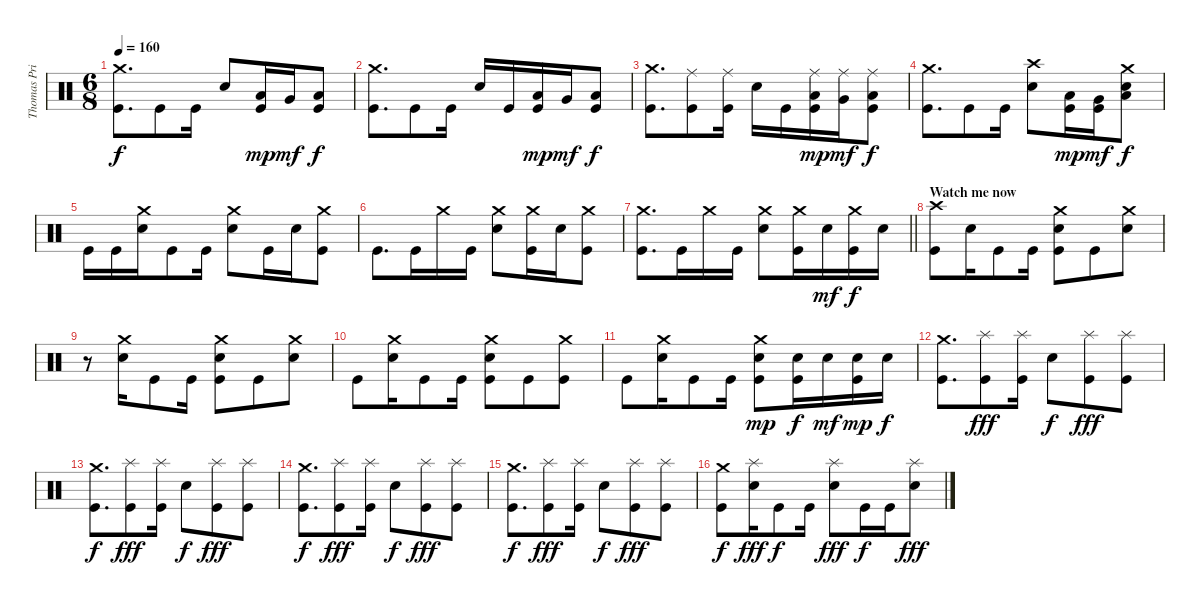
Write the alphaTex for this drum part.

\track ("Thomas Pridgen" "Thomas Pri") {instrument percussion}
\staff {score}
\articulation defaults
\ts (6 8)
\tempo 160
\clef neutral
\ks c
("Crash medium (hit)" "Kick (hit)").8{d dy f} "Kick (hit)".8 "Kick (hit)".16 "Snare (hit) 2".8 ("Low Tom (hit)" "Kick (hit)").16{dy mp} "Very Low Tom (hit)".16{dy mf} ("Low Floor Tom (hit)" "Kick (hit)").8{dy f} |
("Crash medium (hit)" "Kick (hit)").8{d} "Kick (hit)".8 "Kick (hit)".16 "Snare (hit) 2".16 "Kick (hit)".16 ("Low Tom (hit)" "Kick (hit)").16{dy mp} "Very Low Tom (hit)".16{dy mf} ("Low Floor Tom (hit)" "Kick (hit)").8{dy f} |
("Crash medium (hit)" "Kick (hit)").8{d} ("Ride (middle)" "Kick (hit)").8 ("Ride (middle)" "Kick (hit)").16 "Snare (hit) 2".16 "Kick (hit)".16 ("Ride (middle)" "Low Tom (hit)" "Kick (hit)").16{dy mp} ("Ride (middle)" "Very Low Tom (hit)").16{dy mf} ("Ride (middle)" "Low Floor Tom (hit)" "Kick (hit)").8{dy f} |
("Crash medium (hit)" "Kick (hit)").8{d} "Kick (hit)".8 "Kick (hit)".16 ("Crash high (hit)" "Snare (hit) 2").8 ("Low Tom (hit)" "Kick (hit)").16{dy mp} ("Very Low Tom (hit)" "Kick (hit)").16{dy mf} ("Crash medium (hit)" "Snare (hit) 2" "Low Floor Tom (hit)").8{dy f} |
"Kick (hit)".16 "Kick (hit)".16 ("Crash medium (hit)" "Snare (hit) 2").16 "Kick (hit)".8 "Kick (hit)".16 ("Crash medium (hit)" "Snare (hit) 2").8 "Kick (hit)".16 "Snare (hit) 2".16 ("Crash medium (hit)" "Kick (hit)").8 |
"Kick (hit)".8{d} "Kick (hit)".16 "Crash medium (hit)".16 "Kick (hit)".16 ("Crash medium (hit)" "Snare (hit) 2").8 ("Crash medium (hit)" "Kick (hit)").16 "Snare (hit) 2".16 ("Crash medium (hit)" "Kick (hit)").8 |
\barLineRight lightlight
("Crash medium (hit)" "Kick (hit)").8{d} "Kick (hit)".16 "Crash medium (hit)".16 "Kick (hit)".16 ("Crash medium (hit)" "Snare (hit) 2").8 ("Crash medium (hit)" "Kick (hit)").16 "Snare (hit) 2".16{dy mf} ("Crash medium (hit)" "Kick (hit)").16{dy f} "Snare (hit) 2".16 |
\section ("" "Watch me now")
("Crash high (hit)" "Kick (hit)").8 "Snare (hit) 2".16 "Kick (hit)".8 "Kick (hit)".16 ("Crash medium (hit)" "Snare (hit) 2" "Kick (hit)").8 "Kick (hit)".8 ("Crash medium (hit)" "Snare (hit) 2").8 |
r.8 ("Crash medium (hit)" "Snare (hit) 2").16 "Kick (hit)".8 "Kick (hit)".16 ("Crash medium (hit)" "Snare (hit) 2" "Kick (hit)").8 "Kick (hit)".8 ("Crash medium (hit)" "Snare (hit) 2").8 |
"Kick (hit)".8 ("Crash medium (hit)" "Snare (hit) 2").16 "Kick (hit)".8 "Kick (hit)".16 ("Crash medium (hit)" "Snare (hit) 2" "Kick (hit)").8 "Kick (hit)".8 ("Crash medium (hit)" "Kick (hit)").8 |
"Kick (hit)".8 ("Crash medium (hit)" "Snare (hit) 2").16 "Kick (hit)".8 "Kick (hit)".16 ("Crash medium (hit)" "Snare (hit) 2" "Kick (hit)").8{dy mp} ("Snare (hit) 2" "Kick (hit)").16{dy f} "Snare (hit) 2".16{dy mf} ("Snare (hit) 2" "Kick (hit)").16{dy mp} "Snare (hit) 2".16{dy f} |
("Crash medium (hit)" "Kick (hit)").8{d} ("Splash (hit)" "Kick (hit)").8{dy fff} ("Splash (hit)" "Kick (hit)").16 "Snare (hit) 2".8{dy f} ("Splash (hit)" "Kick (hit)").8{dy fff} ("Splash (hit)" "Kick (hit)").8 |
("Crash medium (hit)" "Kick (hit)").8{d dy f} ("Splash (hit)" "Kick (hit)").8{dy fff} ("Splash (hit)" "Kick (hit)").16 "Snare (hit) 2".8{dy f} ("Splash (hit)" "Kick (hit)").8{dy fff} ("Splash (hit)" "Kick (hit)").8 |
("Crash medium (hit)" "Kick (hit)").8{d dy f} ("Splash (hit)" "Kick (hit)").8{dy fff} ("Splash (hit)" "Kick (hit)").16 "Snare (hit) 2".8{dy f} ("Splash (hit)" "Kick (hit)").8{dy fff} ("Splash (hit)" "Kick (hit)").8 |
("Crash medium (hit)" "Kick (hit)").8{d dy f} ("Splash (hit)" "Kick (hit)").8{dy fff} ("Splash (hit)" "Kick (hit)").16 "Snare (hit) 2".8{dy f} ("Splash (hit)" "Kick (hit)").8{dy fff} ("Splash (hit)" "Kick (hit)").8 |
("Crash medium (hit)" "Kick (hit)").8{dy f} ("Splash (hit)" "Snare (hit) 2").16{dy fff} "Kick (hit)".8{dy f} "Kick (hit)".16 ("Splash (hit)" "Snare (hit) 2").8{dy fff} "Kick (hit)".16{dy f} "Kick (hit)".16 ("Splash (hit)" "Snare (hit) 2").8{dy fff}
